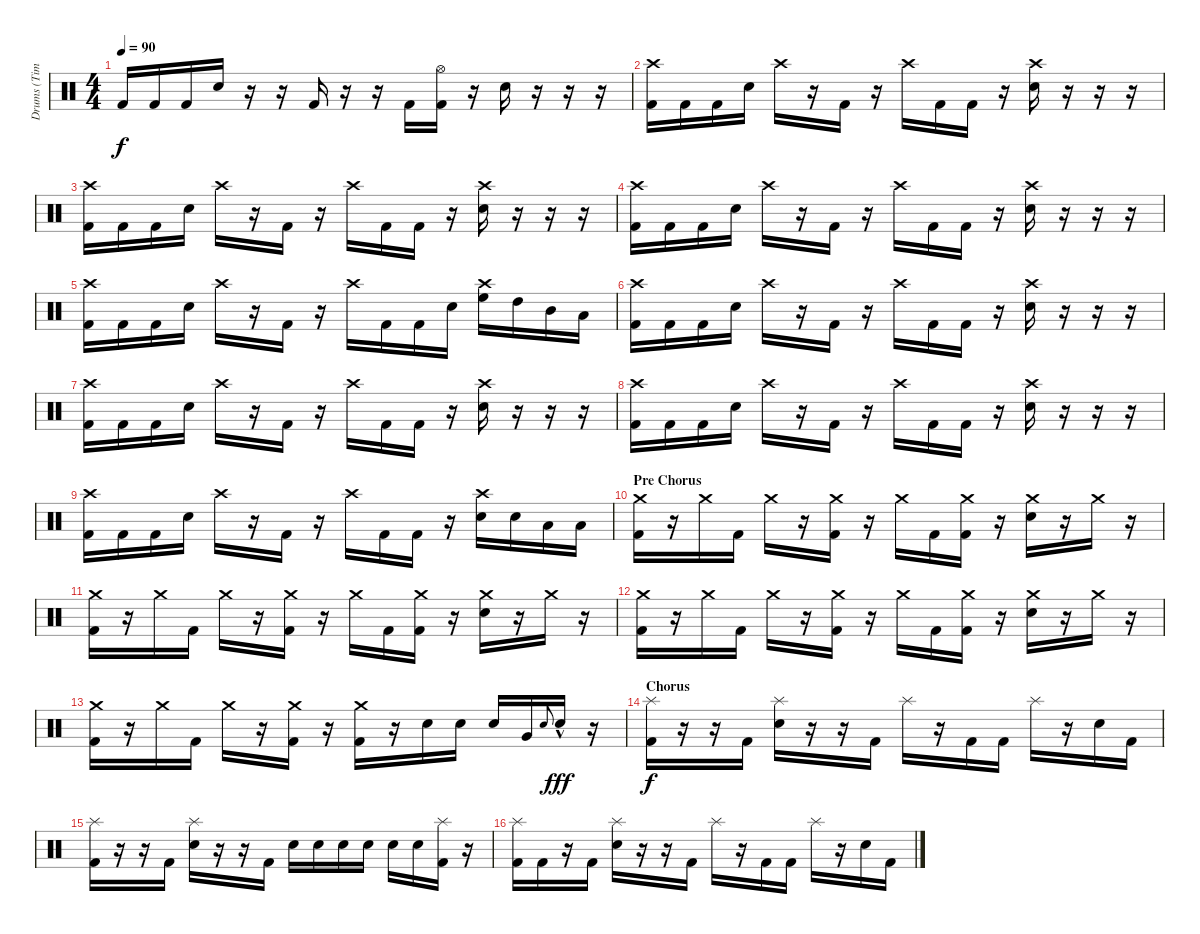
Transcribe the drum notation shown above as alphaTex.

\track ("Drums (Tim Watts)" "Drums (Tim") {instrument percussion}
\staff {score}
\articulation defaults
\ts (4 4)
\tempo 90
\clef neutral
\ks c "Kick (hit) 2".16{dy f} "Kick (hit) 2".16 "Kick (hit) 2".16 "Snare (hit) 2".16
r.16 r.16 "Kick (hit) 2".16 r.16 r.16 "Kick (hit) 2".16 ("Hi-Hat (open)" "Kick (hit) 2").16 r.16 "Snare (hit) 2".16 r.16 r.16 r.16 |
("Crash high (hit)" "Kick (hit) 2").16 "Kick (hit) 2".16 "Kick (hit) 2".16 "Snare (hit) 2".16 "Crash high (hit)".16 r.16 "Kick (hit) 2".16 r.16 "Crash high (hit)".16 "Kick (hit) 2".16 "Kick (hit) 2".16 r.16 ("Crash high (hit)" "Snare (hit) 2").16 r.16 r.16 r.16 |
("Crash high (hit)" "Kick (hit) 2").16 "Kick (hit) 2".16 "Kick (hit) 2".16 "Snare (hit) 2".16 "Crash high (hit)".16 r.16 "Kick (hit) 2".16 r.16 "Crash high (hit)".16 "Kick (hit) 2".16 "Kick (hit) 2".16 r.16 ("Crash high (hit)" "Snare (hit) 2").16 r.16 r.16 r.16 |
("Crash high (hit)" "Kick (hit) 2").16 "Kick (hit) 2".16 "Kick (hit) 2".16 "Snare (hit) 2".16 "Crash high (hit)".16 r.16 "Kick (hit) 2".16 r.16 "Crash high (hit)".16 "Kick (hit) 2".16 "Kick (hit) 2".16 r.16 ("Crash high (hit)" "Snare (hit) 2").16 r.16 r.16 r.16 |
("Crash high (hit)" "Kick (hit) 2").16 "Kick (hit) 2".16 "Kick (hit) 2".16 "Snare (hit) 2".16 "Crash high (hit)".16 r.16 "Kick (hit) 2".16 r.16 "Crash high (hit)".16 "Kick (hit) 2".16 "Kick (hit) 2".16 "Snare (hit) 2".16 ("Crash high (hit)" "High Floor Tom (hit)").16 "High Tom (hit)".16 "Mid Tom (hit)".16 "Low Tom (hit)".16 |
("Crash high (hit)" "Kick (hit) 2").16 "Kick (hit) 2".16 "Kick (hit) 2".16 "Snare (hit) 2".16 "Crash high (hit)".16 r.16 "Kick (hit) 2".16 r.16 "Crash high (hit)".16 "Kick (hit) 2".16 "Kick (hit) 2".16 r.16 ("Crash high (hit)" "Snare (hit) 2").16 r.16 r.16 r.16 |
("Crash high (hit)" "Kick (hit) 2").16 "Kick (hit) 2".16 "Kick (hit) 2".16 "Snare (hit) 2".16 "Crash high (hit)".16 r.16 "Kick (hit) 2".16 r.16 "Crash high (hit)".16 "Kick (hit) 2".16 "Kick (hit) 2".16 r.16 ("Crash high (hit)" "Snare (hit) 2").16 r.16 r.16 r.16 |
("Crash high (hit)" "Kick (hit) 2").16 "Kick (hit) 2".16 "Kick (hit) 2".16 "Snare (hit) 2".16 "Crash high (hit)".16 r.16 "Kick (hit) 2".16 r.16 "Crash high (hit)".16 "Kick (hit) 2".16 "Kick (hit) 2".16 r.16 ("Crash high (hit)" "Snare (hit) 2").16 r.16 r.16 r.16 |
("Crash high (hit)" "Kick (hit) 2").16 "Kick (hit) 2".16 "Kick (hit) 2".16 "Snare (hit) 2".16 "Crash high (hit)".16 r.16 "Kick (hit) 2".16 r.16 "Crash high (hit)".16 "Kick (hit) 2".16 "Kick (hit) 2".16 r.16 ("Crash high (hit)" "Snare (hit) 2").16 "Snare (hit) 2".16 "Low Tom (hit)".16 "Low Tom (hit)".16 |
\section ("" "Pre Chorus")
("Crash medium (hit)" "Kick (hit) 2").16 r.16 "Crash medium (hit)".16 "Kick (hit) 2".16 "Crash medium (hit)".16 r.16 ("Crash medium (hit)" "Kick (hit) 2").16 r.16 "Crash medium (hit)".16 "Kick (hit) 2".16 ("Crash medium (hit)" "Kick (hit) 2").16 r.16 ("Crash medium (hit)" "Snare (hit) 2").16 r.16 "Crash medium (hit)".16 r.16 |
("Crash medium (hit)" "Kick (hit) 2").16 r.16 "Crash medium (hit)".16 "Kick (hit) 2".16 "Crash medium (hit)".16 r.16 ("Crash medium (hit)" "Kick (hit) 2").16 r.16 "Crash medium (hit)".16 "Kick (hit) 2".16 ("Crash medium (hit)" "Kick (hit) 2").16 r.16 ("Crash medium (hit)" "Snare (hit) 2").16 r.16 "Crash medium (hit)".16 r.16 |
("Crash medium (hit)" "Kick (hit) 2").16 r.16 "Crash medium (hit)".16 "Kick (hit) 2".16 "Crash medium (hit)".16 r.16 ("Crash medium (hit)" "Kick (hit) 2").16 r.16 "Crash medium (hit)".16 "Kick (hit) 2".16 ("Crash medium (hit)" "Kick (hit) 2").16 r.16 ("Crash medium (hit)" "Snare (hit) 2").16 r.16 "Crash medium (hit)".16 r.16 |
("Crash medium (hit)" "Kick (hit) 2").16 r.16 "Crash medium (hit)".16 "Kick (hit) 2".16 "Crash medium (hit)".16 r.16 ("Crash medium (hit)" "Kick (hit) 2").16 r.16 ("Crash medium (hit)" "Kick (hit) 2").16 r.16 "Snare (hit) 2".16 "Snare (hit) 2".16 "Snare (hit) 2".16 "Very Low Tom (hit)".16 "Snare (hit) 2".8{gr onbeat} "Snare (hit) 2"{hac}.16{dy fff} r.16 |
\section ("" "Chorus")
("Splash (hit)" "Kick (hit) 2").16{dy f} r.16 r.16 "Kick (hit) 2".16 ("Splash (hit)" "Snare (hit) 2").16 r.16 r.16 "Kick (hit) 2".16 "Splash (hit)".16 r.16 "Kick (hit) 2".16 "Kick (hit) 2".16 "Splash (hit)".16 r.16 "Snare (hit) 2".16 "Kick (hit) 2".16 |
("Splash (hit)" "Kick (hit) 2").16 r.16 r.16 "Kick (hit) 2".16 ("Splash (hit)" "Snare (hit) 2").16 r.16 r.16 "Kick (hit) 2".16 "Snare (hit) 2".16 "Snare (hit) 2".16 "Snare (hit) 2".16 "Snare (hit) 2".16 "Snare (hit) 2".16 "Snare (hit) 2".16 ("Splash (hit)" "Kick (hit) 2").16 r.16 |
("Splash (hit)" "Kick (hit) 2").16 "Kick (hit) 2".16 r.16 "Kick (hit) 2".16 ("Splash (hit)" "Snare (hit) 2").16 r.16 r.16 "Kick (hit) 2".16 "Splash (hit)".16 r.16 "Kick (hit) 2".16 "Kick (hit) 2".16 "Splash (hit)".16 r.16 "Snare (hit) 2".16 "Kick (hit) 2".16
